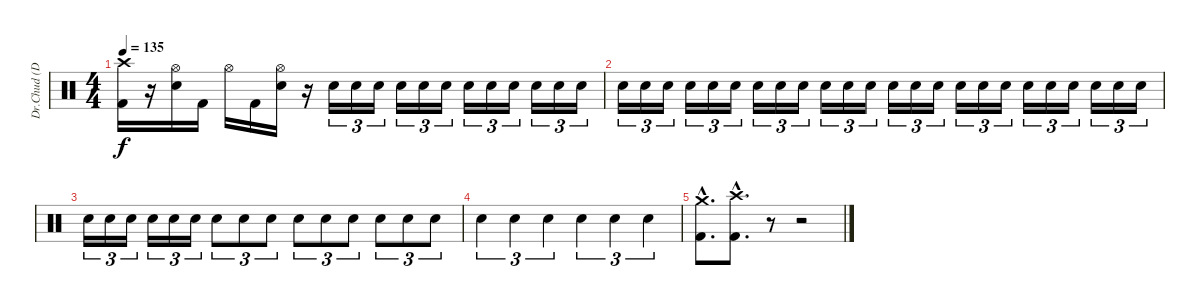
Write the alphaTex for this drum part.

\track ("Dr.Chud (Drums)" "Dr.Chud (D") {instrument percussion}
\staff {score}
\articulation defaults
\ts (4 4)
\tempo 135
\clef neutral
\ks c
("Crash high (hit)" "Kick (hit) 2").16{dy f} r.16 ("Hi-Hat (open)" "Snare (hit) 2").16 "Kick (hit) 2".16 "Hi-Hat (open)".16 "Kick (hit) 2".16 ("Hi-Hat (open)" "Snare (hit) 2").16 r.16 "Snare (hit) 2".16{tu (3 2)} "Snare (hit) 2".16{tu (3 2)} "Snare (hit) 2".16{tu (3 2)} "Snare (hit) 2".16{tu (3 2)} "Snare (hit) 2".16{tu (3 2)} "Snare (hit) 2".16{tu (3 2)} "Snare (hit) 2".16{tu (3 2)} "Snare (hit) 2".16{tu (3 2)} "Snare (hit) 2".16{tu (3 2)} "Snare (hit) 2".16{tu (3 2)} "Snare (hit) 2".16{tu (3 2)} "Snare (hit) 2".16{tu (3 2)} |
"Snare (hit) 2".16{tu (3 2)} "Snare (hit) 2".16{tu (3 2)} "Snare (hit) 2".16{tu (3 2)} "Snare (hit) 2".16{tu (3 2)} "Snare (hit) 2".16{tu (3 2)} "Snare (hit) 2".16{tu (3 2)} "Snare (hit) 2".16{tu (3 2)} "Snare (hit) 2".16{tu (3 2)} "Snare (hit) 2".16{tu (3 2)} "Snare (hit) 2".16{tu (3 2)} "Snare (hit) 2".16{tu (3 2)} "Snare (hit) 2".16{tu (3 2)} "Snare (hit) 2".16{tu (3 2)} "Snare (hit) 2".16{tu (3 2)} "Snare (hit) 2".16{tu (3 2)} "Snare (hit) 2".16{tu (3 2)} "Snare (hit) 2".16{tu (3 2)} "Snare (hit) 2".16{tu (3 2)} "Snare (hit) 2".16{tu (3 2)} "Snare (hit) 2".16{tu (3 2)} "Snare (hit) 2".16{tu (3 2)} "Snare (hit) 2".16{tu (3 2)} "Snare (hit) 2".16{tu (3 2)} "Snare (hit) 2".16{tu (3 2)} |
"Snare (hit) 2".16{tu (3 2)} "Snare (hit) 2".16{tu (3 2)} "Snare (hit) 2".16{tu (3 2)} "Snare (hit) 2".16{tu (3 2)} "Snare (hit) 2".16{tu (3 2)} "Snare (hit) 2".16{tu (3 2)} "Snare (hit) 2".8{tu (3 2)} "Snare (hit) 2".8{tu (3 2)} "Snare (hit) 2".8{tu (3 2)} "Snare (hit) 2".8{tu (3 2)} "Snare (hit) 2".8{tu (3 2)} "Snare (hit) 2".8{tu (3 2)} "Snare (hit) 2".8{tu (3 2)} "Snare (hit) 2".8{tu (3 2)} "Snare (hit) 2".8{tu (3 2)} |
"Snare (hit) 2".4{tu (3 2)} "Snare (hit) 2".4{tu (3 2)} "Snare (hit) 2".4{tu (3 2)} "Snare (hit) 2".4{tu (3 2)} "Snare (hit) 2".4{tu (3 2)} "Snare (hit) 2".4{tu (3 2)} |
("Crash medium (hit)"{hac} "Kick (hit) 2"{hac}).8{d} ("Crash high (hit)"{hac} "Kick (hit) 2"{hac}).8{d} r.8 r.2
